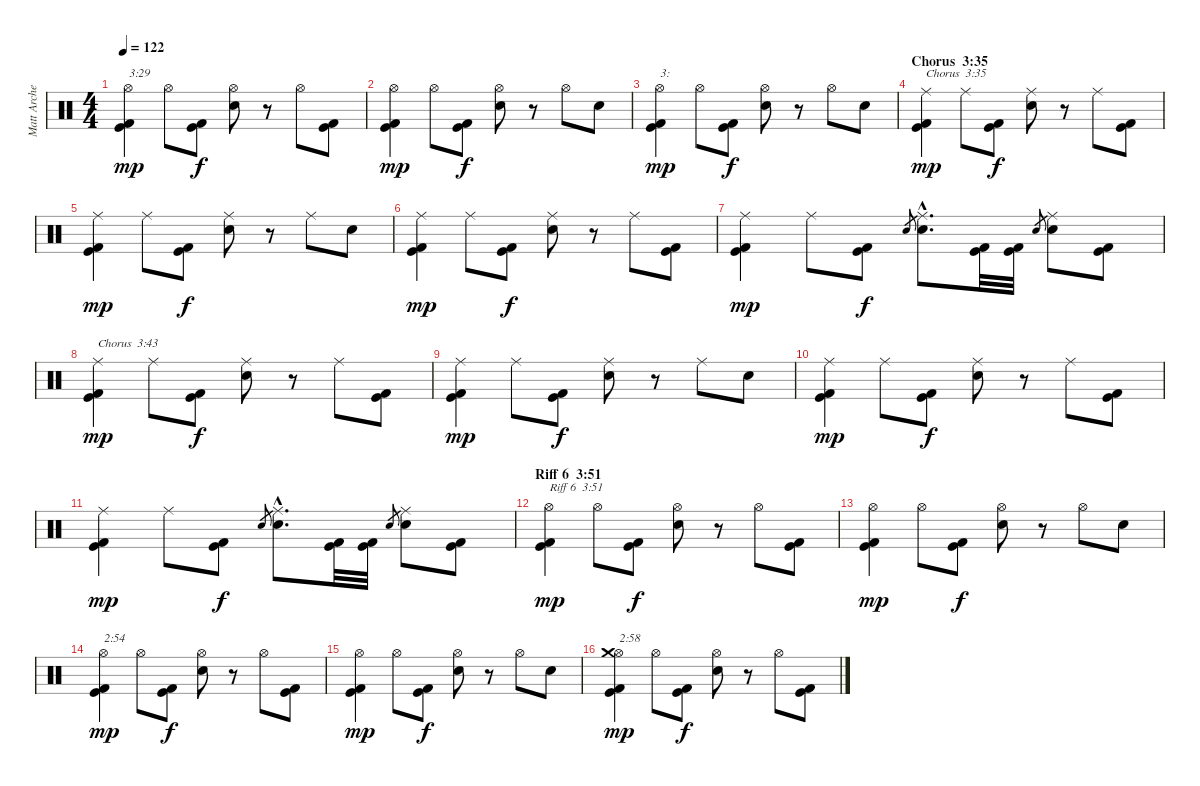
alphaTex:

\track ("Matt Archer" "Matt Arche") {instrument percussion}
\staff {score}
\articulation defaults
\ts (4 4)
\tempo 122
\clef neutral
\ks c
("Kick (hit)" "Kick (hit) 2" "Hi-Hat (open)").4{txt "3:29" dy mp} "Hi-Hat (open)".8 ("Kick (hit)" "Kick (hit) 2").8{dy f} ("Electric Snare (hit)" "Hi-Hat (open)").8 r.8 "Hi-Hat (open)".8 ("Kick (hit)" "Kick (hit) 2").8 |
("Kick (hit)" "Kick (hit) 2" "Hi-Hat (open)").4{dy mp} "Hi-Hat (open)".8 ("Kick (hit)" "Kick (hit) 2").8{dy f} ("Electric Snare (hit)" "Hi-Hat (open)").8 r.8 "Hi-Hat (open)".8 "Electric Snare (hit)".8 |
("Kick (hit)" "Kick (hit) 2" "Hi-Hat (open)").4{txt "3:" dy mp} "Hi-Hat (open)".8 ("Kick (hit)" "Kick (hit) 2").8{dy f} ("Electric Snare (hit)" "Hi-Hat (open)").8 r.8 "Hi-Hat (open)".8 "Electric Snare (hit)".8 |
\section ("" "Chorus  3:35")
("Kick (hit)" "Kick (hit) 2" "Ride (middle)").4{txt "Chorus  3:35" dy mp} "Ride (middle)".8 ("Kick (hit)" "Kick (hit) 2").8{dy f} ("Electric Snare (hit)" "Ride (middle)").8 r.8 "Ride (middle)".8 ("Kick (hit)" "Kick (hit) 2").8 |
("Kick (hit)" "Kick (hit) 2" "Ride (middle)").4{dy mp} "Ride (middle)".8 ("Kick (hit)" "Kick (hit) 2").8{dy f} ("Electric Snare (hit)" "Ride (middle)").8 r.8 "Ride (middle)".8 "Electric Snare (hit)".8 |
("Kick (hit)" "Kick (hit) 2" "Ride (middle)").4{dy mp} "Ride (middle)".8 ("Kick (hit)" "Kick (hit) 2").8{dy f} ("Electric Snare (hit)" "Ride (middle)").8 r.8 "Ride (middle)".8 ("Kick (hit)" "Kick (hit) 2").8 |
("Kick (hit)" "Kick (hit) 2" "Ride (middle)").4{dy mp} "Ride (middle)".8 ("Kick (hit)" "Kick (hit) 2").8{dy f} "Electric Snare (hit)".8{gr} ("Electric Snare (hit)"{hac} "Ride (middle)"{hac}).8{d} ("Kick (hit)" "Kick (hit) 2").32 ("Kick (hit)" "Kick (hit) 2").32 "Electric Snare (hit)".8{gr} ("Electric Snare (hit)" "Ride (middle)").8 ("Kick (hit)" "Kick (hit) 2").8 |
("Kick (hit)" "Kick (hit) 2" "Ride (middle)").4{txt "Chorus  3:43" dy mp} "Ride (middle)".8 ("Kick (hit)" "Kick (hit) 2").8{dy f} ("Electric Snare (hit)" "Ride (middle)").8 r.8 "Ride (middle)".8 ("Kick (hit)" "Kick (hit) 2").8 |
("Kick (hit)" "Kick (hit) 2" "Ride (middle)").4{dy mp} "Ride (middle)".8 ("Kick (hit)" "Kick (hit) 2").8{dy f} ("Electric Snare (hit)" "Ride (middle)").8 r.8 "Ride (middle)".8 "Electric Snare (hit)".8 |
("Kick (hit)" "Kick (hit) 2" "Ride (middle)").4{dy mp} "Ride (middle)".8 ("Kick (hit)" "Kick (hit) 2").8{dy f} ("Electric Snare (hit)" "Ride (middle)").8 r.8 "Ride (middle)".8 ("Kick (hit)" "Kick (hit) 2").8 |
("Kick (hit)" "Kick (hit) 2" "Ride (middle)").4{dy mp} "Ride (middle)".8 ("Kick (hit)" "Kick (hit) 2").8{dy f} "Electric Snare (hit)".8{gr} ("Electric Snare (hit)"{hac} "Ride (middle)"{hac}).8{d} ("Kick (hit)" "Kick (hit) 2").32 ("Kick (hit)" "Kick (hit) 2").32 "Electric Snare (hit)".8{gr} ("Electric Snare (hit)" "Ride (middle)").8 ("Kick (hit)" "Kick (hit) 2").8 |
\section ("" "Riff 6  3:51")
("Kick (hit)" "Kick (hit) 2" "Hi-Hat (open)").4{txt "Riff 6  3:51" dy mp} "Hi-Hat (open)".8 ("Kick (hit)" "Kick (hit) 2").8{dy f} ("Electric Snare (hit)" "Hi-Hat (open)").8 r.8 "Hi-Hat (open)".8 ("Kick (hit)" "Kick (hit) 2").8 |
("Kick (hit)" "Kick (hit) 2" "Hi-Hat (open)").4{dy mp} "Hi-Hat (open)".8 ("Kick (hit)" "Kick (hit) 2").8{dy f} ("Electric Snare (hit)" "Hi-Hat (open)").8 r.8 "Hi-Hat (open)".8 "Electric Snare (hit)".8 |
("Kick (hit)" "Kick (hit) 2" "Hi-Hat (open)").4{txt "2:54" dy mp} "Hi-Hat (open)".8 ("Kick (hit)" "Kick (hit) 2").8{dy f} ("Electric Snare (hit)" "Hi-Hat (open)").8 r.8 "Hi-Hat (open)".8 ("Kick (hit)" "Kick (hit) 2").8 |
("Kick (hit)" "Kick (hit) 2" "Hi-Hat (open)").4{dy mp} "Hi-Hat (open)".8 ("Kick (hit)" "Kick (hit) 2").8{dy f} ("Electric Snare (hit)" "Hi-Hat (open)").8 r.8 "Hi-Hat (open)".8 "Electric Snare (hit)".8 |
("Kick (hit)" "Kick (hit) 2" "Hi-Hat (open)" "Crash medium (hit)").4{txt "2:58" dy mp} "Hi-Hat (open)".8 ("Kick (hit)" "Kick (hit) 2").8{dy f} ("Electric Snare (hit)" "Hi-Hat (open)").8 r.8 "Hi-Hat (open)".8 ("Kick (hit)" "Kick (hit) 2").8
